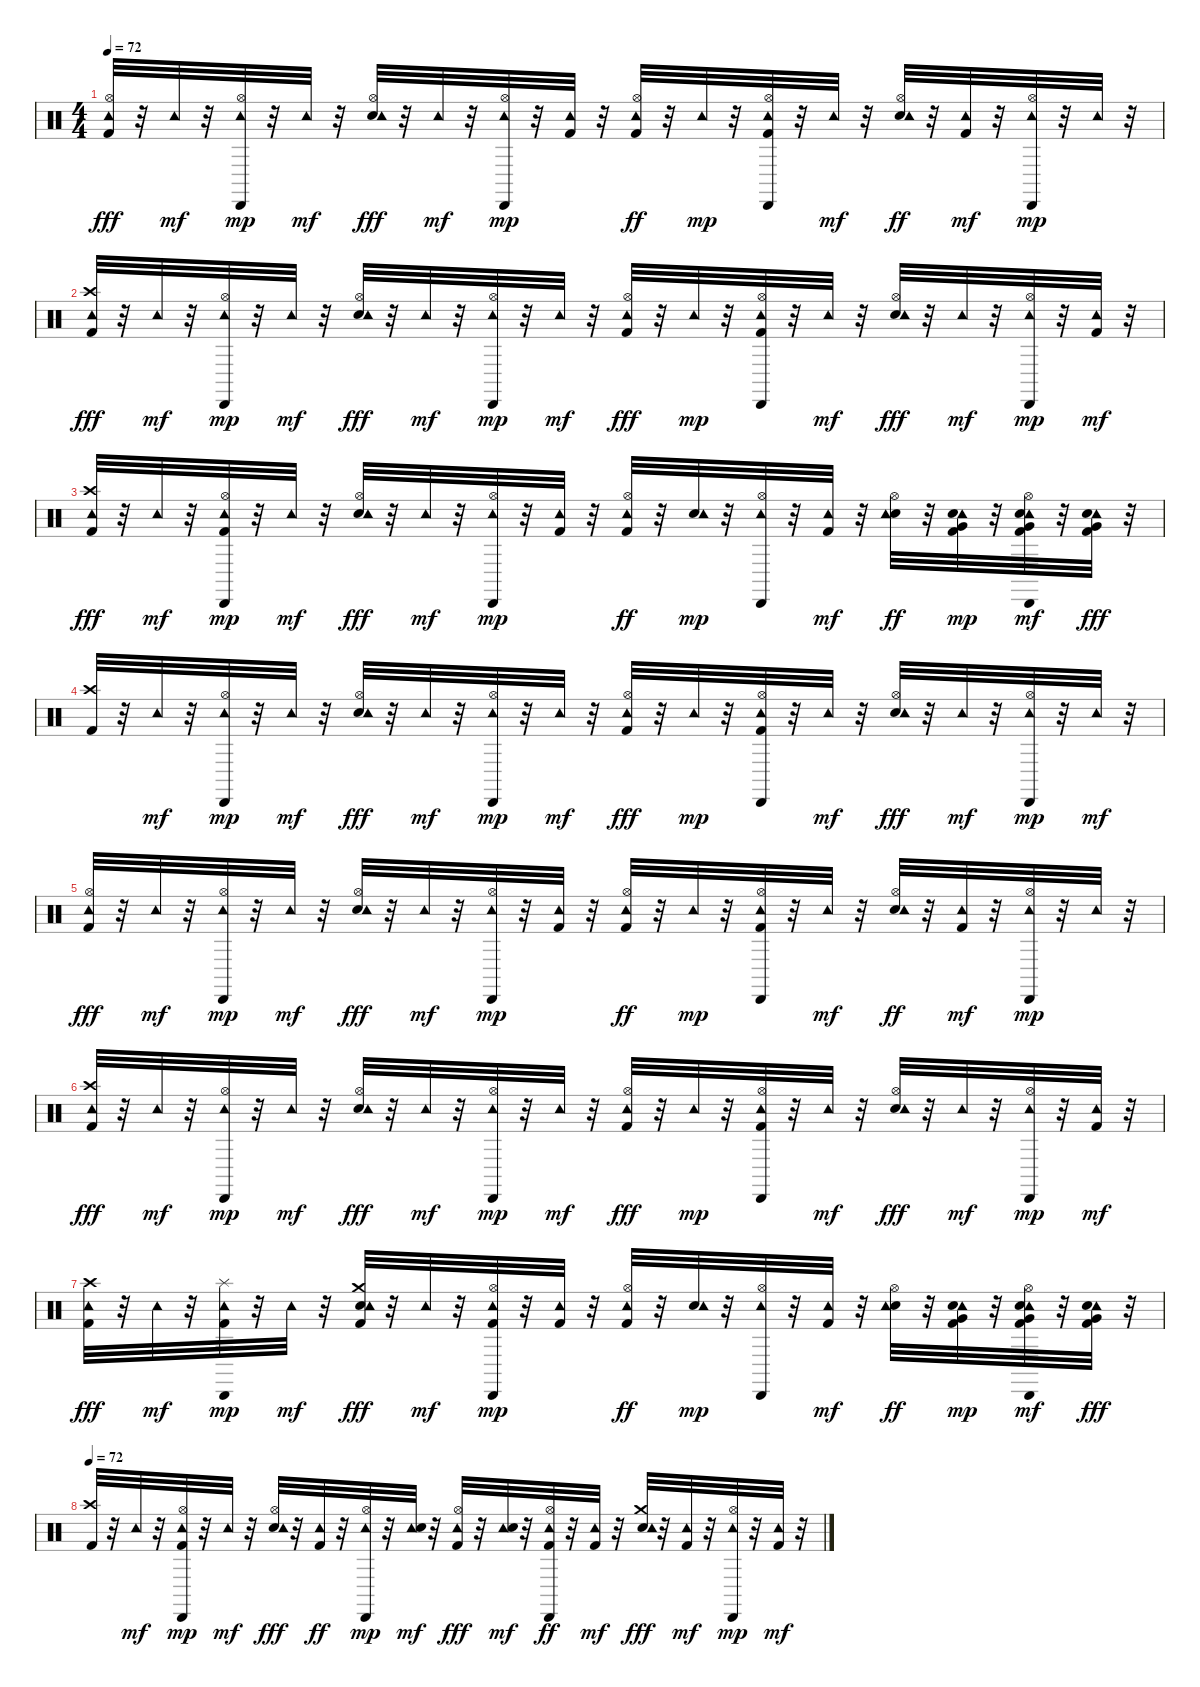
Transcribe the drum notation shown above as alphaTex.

\track "" {instrument percussion}
\staff {score}
\articulation defaults
\ts (4 4)
\tempo 72
\clef neutral
\ks c
("Kick (hit) 2" "Hi-Hat (open)" "Tambourine (hit)").32{dy fff} r.32 "Tambourine (hit)".32{dy mf} r.32 ("Hi-Hat (open)" "Cabasa (hit)" "Tambourine (hit)").32{dy mp} r.32 "Tambourine (hit)".32{dy mf} r.32 ("Electric Snare (hit)" "Hi-Hat (open)" "Tambourine (hit)").32{dy fff} r.32 "Tambourine (hit)".32{dy mf} r.32 ("Hi-Hat (open)" "Cabasa (hit)" "Tambourine (hit)").32{dy mp} r.32 ("Kick (hit) 2" "Tambourine (hit)").32 r.32 ("Kick (hit) 2" "Hi-Hat (open)" "Tambourine (hit)").32{dy ff} r.32 "Tambourine (hit)".32{dy mp} r.32 ("Kick (hit) 2" "Hi-Hat (open)" "Cabasa (hit)" "Tambourine (hit)").32 r.32 "Tambourine (hit)".32{dy mf} r.32 ("Electric Snare (hit)" "Hi-Hat (open)" "Tambourine (hit)").32{dy ff} r.32 ("Tambourine (hit)" "Kick (hit) 2").32{dy mf} r.32 ("Tambourine (hit)" "Hi-Hat (open)" "Cabasa (hit)").32{dy mp} r.32 "Tambourine (hit)".32 r.32 |
("Kick (hit) 2" "Crash high (hit)" "Tambourine (hit)").32{dy fff} r.32 "Tambourine (hit)".32{dy mf} r.32 ("Hi-Hat (open)" "Cabasa (hit)" "Tambourine (hit)").32{dy mp} r.32 "Tambourine (hit)".32{dy mf} r.32 ("Electric Snare (hit)" "Hi-Hat (open)" "Tambourine (hit)").32{dy fff} r.32 "Tambourine (hit)".32{dy mf} r.32 ("Hi-Hat (open)" "Cabasa (hit)" "Tambourine (hit)").32{dy mp} r.32 "Tambourine (hit)".32{dy mf} r.32 ("Kick (hit) 2" "Hi-Hat (open)" "Tambourine (hit)").32{dy fff} r.32 "Tambourine (hit)".32{dy mp} r.32 ("Kick (hit) 2" "Hi-Hat (open)" "Cabasa (hit)" "Tambourine (hit)").32 r.32 "Tambourine (hit)".32{dy mf} r.32 ("Electric Snare (hit)" "Hi-Hat (open)" "Tambourine (hit)").32{dy fff} r.32 "Tambourine (hit)".32{dy mf} r.32 ("Hi-Hat (open)" "Cabasa (hit)" "Tambourine (hit)").32{dy mp} r.32 ("Kick (hit) 2" "Tambourine (hit)").32{dy mf} r.32 |
("Kick (hit) 2" "Crash high (hit)" "Tambourine (hit)").32{dy fff} r.32 "Tambourine (hit)".32{dy mf} r.32 ("Kick (hit) 2" "Hi-Hat (open)" "Cabasa (hit)" "Tambourine (hit)").32{dy mp} r.32 "Tambourine (hit)".32{dy mf} r.32 ("Electric Snare (hit)" "Hi-Hat (open)" "Tambourine (hit)").32{dy fff} r.32 "Tambourine (hit)".32{dy mf} r.32 ("Hi-Hat (open)" "Cabasa (hit)" "Tambourine (hit)").32{dy mp} r.32 ("Kick (hit) 2" "Tambourine (hit)").32 r.32 ("Kick (hit) 2" "Hi-Hat (open)" "Tambourine (hit)").32{dy ff} r.32 ("Electric Snare (hit)" "Tambourine (hit)").32{dy mp} r.32 ("Hi-Hat (open)" "Cabasa (hit)" "Tambourine (hit)").32 r.32 ("Kick (hit) 2" "Tambourine (hit)").32{dy mf} r.32 ("Electric Snare (hit)" "Hi-Hat (open)" "Tambourine (hit)").32{dy ff} r.32 ("Kick (hit) 2" "Very Low Tom (hit)" "Tambourine (hit)" "Electric Snare (hit)").32{dy mp} r.32 ("Tambourine (hit)" "Very Low Tom (hit)" "Hi-Hat (open)" "Cabasa (hit)" "Kick (hit) 2" "Electric Snare (hit)").32{dy mf} r.32 ("Tambourine (hit)" "Kick (hit) 2" "Electric Snare (hit)" "Very Low Tom (hit)").32{dy fff} r.32 |
("Kick (hit) 2" "Crash high (hit)").32 r.32 "Tambourine (hit)".32{dy mf} r.32 ("Hi-Hat (open)" "Cabasa (hit)" "Tambourine (hit)").32{dy mp} r.32 "Tambourine (hit)".32{dy mf} r.32 ("Electric Snare (hit)" "Hi-Hat (open)" "Tambourine (hit)").32{dy fff} r.32 "Tambourine (hit)".32{dy mf} r.32 ("Hi-Hat (open)" "Cabasa (hit)" "Tambourine (hit)").32{dy mp} r.32 "Tambourine (hit)".32{dy mf} r.32 ("Kick (hit) 2" "Hi-Hat (open)" "Tambourine (hit)").32{dy fff} r.32 "Tambourine (hit)".32{dy mp} r.32 ("Kick (hit) 2" "Hi-Hat (open)" "Cabasa (hit)" "Tambourine (hit)").32 r.32 "Tambourine (hit)".32{dy mf} r.32 ("Electric Snare (hit)" "Hi-Hat (open)" "Tambourine (hit)").32{dy fff} r.32 "Tambourine (hit)".32{dy mf} r.32 ("Hi-Hat (open)" "Cabasa (hit)" "Tambourine (hit)").32{dy mp} r.32 "Tambourine (hit)".32{dy mf} r.32 |
("Kick (hit) 2" "Hi-Hat (open)" "Tambourine (hit)").32{dy fff} r.32 "Tambourine (hit)".32{dy mf} r.32 ("Hi-Hat (open)" "Cabasa (hit)" "Tambourine (hit)").32{dy mp} r.32 "Tambourine (hit)".32{dy mf} r.32 ("Electric Snare (hit)" "Hi-Hat (open)" "Tambourine (hit)").32{dy fff} r.32 "Tambourine (hit)".32{dy mf} r.32 ("Hi-Hat (open)" "Cabasa (hit)" "Tambourine (hit)").32{dy mp} r.32 ("Kick (hit) 2" "Tambourine (hit)").32 r.32 ("Kick (hit) 2" "Hi-Hat (open)" "Tambourine (hit)").32{dy ff} r.32 "Tambourine (hit)".32{dy mp} r.32 ("Kick (hit) 2" "Hi-Hat (open)" "Cabasa (hit)" "Tambourine (hit)").32 r.32 "Tambourine (hit)".32{dy mf} r.32 ("Electric Snare (hit)" "Hi-Hat (open)" "Tambourine (hit)").32{dy ff} r.32 ("Tambourine (hit)" "Kick (hit) 2").32{dy mf} r.32 ("Tambourine (hit)" "Hi-Hat (open)" "Cabasa (hit)").32{dy mp} r.32 "Tambourine (hit)".32 r.32 |
("Kick (hit) 2" "Crash high (hit)" "Tambourine (hit)").32{dy fff} r.32 "Tambourine (hit)".32{dy mf} r.32 ("Hi-Hat (open)" "Cabasa (hit)" "Tambourine (hit)").32{dy mp} r.32 "Tambourine (hit)".32{dy mf} r.32 ("Electric Snare (hit)" "Hi-Hat (open)" "Tambourine (hit)").32{dy fff} r.32 "Tambourine (hit)".32{dy mf} r.32 ("Hi-Hat (open)" "Cabasa (hit)" "Tambourine (hit)").32{dy mp} r.32 "Tambourine (hit)".32{dy mf} r.32 ("Kick (hit) 2" "Hi-Hat (open)" "Tambourine (hit)").32{dy fff} r.32 "Tambourine (hit)".32{dy mp} r.32 ("Kick (hit) 2" "Hi-Hat (open)" "Cabasa (hit)" "Tambourine (hit)").32 r.32 "Tambourine (hit)".32{dy mf} r.32 ("Electric Snare (hit)" "Hi-Hat (open)" "Tambourine (hit)").32{dy fff} r.32 "Tambourine (hit)".32{dy mf} r.32 ("Hi-Hat (open)" "Cabasa (hit)" "Tambourine (hit)").32{dy mp} r.32 ("Kick (hit) 2" "Tambourine (hit)").32{dy mf} r.32 |
("Kick (hit) 2" "Crash high (hit)" "Tambourine (hit)").32{dy fff} r.32 "Tambourine (hit)".32{dy mf} r.32 ("Kick (hit) 2" "Splash (hit)" "Cabasa (hit)" "Tambourine (hit)").32{dy mp} r.32 "Tambourine (hit)".32{dy mf} r.32 ("Kick (hit) 2" "Electric Snare (hit)" "Crash medium (hit)" "Tambourine (hit)").32{dy fff} r.32 "Tambourine (hit)".32{dy mf} r.32 ("Kick (hit) 2" "Hi-Hat (open)" "Cabasa (hit)" "Tambourine (hit)").32{dy mp} r.32 ("Kick (hit) 2" "Tambourine (hit)").32 r.32 ("Kick (hit) 2" "Hi-Hat (open)" "Tambourine (hit)").32{dy ff} r.32 ("Electric Snare (hit)" "Tambourine (hit)").32{dy mp} r.32 ("Hi-Hat (open)" "Cabasa (hit)" "Tambourine (hit)").32 r.32 ("Kick (hit) 2" "Tambourine (hit)").32{dy mf} r.32 ("Electric Snare (hit)" "Hi-Hat (open)" "Tambourine (hit)").32{dy ff} r.32 ("Kick (hit) 2" "Very Low Tom (hit)" "Tambourine (hit)" "Electric Snare (hit)").32{dy mp} r.32 ("Tambourine (hit)" "Very Low Tom (hit)" "Hi-Hat (open)" "Cabasa (hit)" "Kick (hit) 2" "Electric Snare (hit)").32{dy mf} r.32 ("Tambourine (hit)" "Kick (hit) 2" "Electric Snare (hit)" "Very Low Tom (hit)").32{dy fff} r.32 |
\tempo 72
("Kick (hit) 2" "Crash high (hit)").32 r.32 "Tambourine (hit)".32{dy mf} r.32 ("Kick (hit) 2" "Hi-Hat (open)" "Cabasa (hit)" "Tambourine (hit)").32{dy mp} r.32 "Tambourine (hit)".32{dy mf} r.32 ("Electric Snare (hit)" "Hi-Hat (open)" "Tambourine (hit)").32{dy fff} r.32 ("Tambourine (hit)" "Kick (hit) 2").32{dy ff} r.32 ("Hi-Hat (open)" "Cabasa (hit)" "Tambourine (hit)").32{dy mp} r.32 ("Tambourine (hit)" "Electric Snare (hit)").32{dy mf} r.32 ("Kick (hit) 2" "Hi-Hat (open)" "Tambourine (hit)").32{dy fff} r.32 ("Tambourine (hit)" "Electric Snare (hit)").32{dy mf} r.32 ("Hi-Hat (open)" "Cabasa (hit)" "Tambourine (hit)" "Kick (hit) 2").32{dy ff} r.32 ("Kick (hit) 2" "Tambourine (hit)").32{dy mf} r.32 ("Electric Snare (hit)" "Crash medium (hit)" "Tambourine (hit)").32{dy fff} r.32 ("Kick (hit) 2" "Tambourine (hit)").32{dy mf} r.32 ("Hi-Hat (open)" "Cabasa (hit)" "Tambourine (hit)").32{dy mp} r.32 ("Kick (hit) 2" "Tambourine (hit)").32{dy mf} r.32
